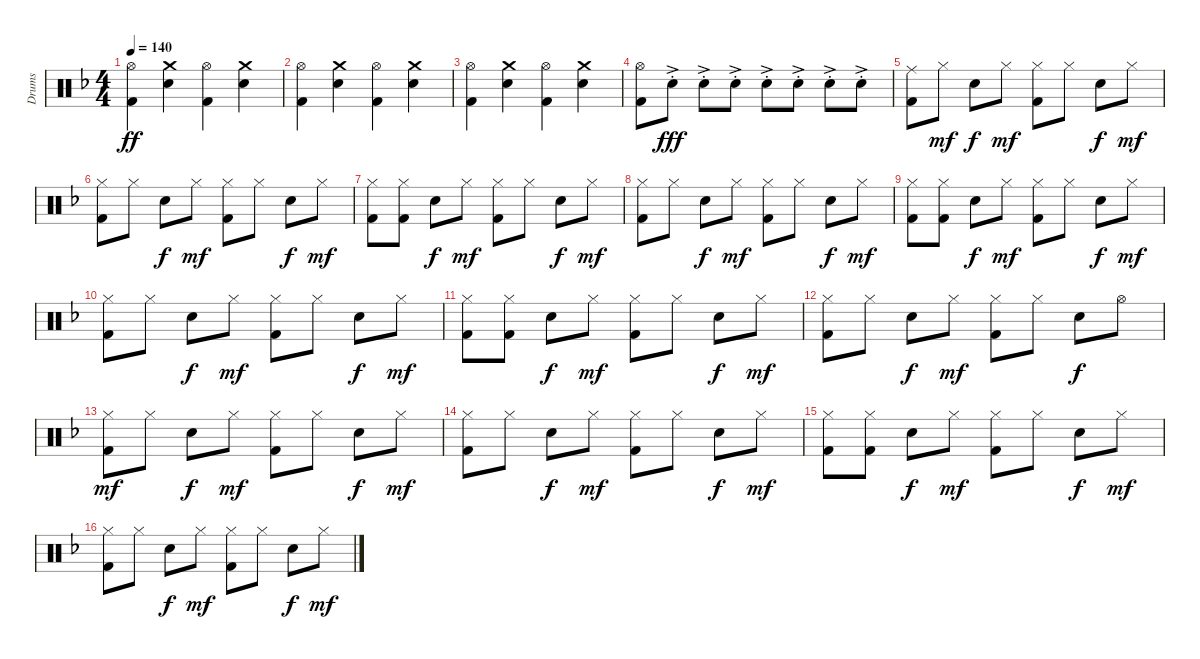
\track ("Drums" "Drums") {instrument percussion}
\staff {score}
\articulation defaults
\ts (4 4)
\tempo 140
\clef neutral
\ks dminor
("Hi-Hat (open)" "Kick (hit) 2").4{dy ff} ("Electric Snare (hit)" "Crash medium (hit)").4 ("Hi-Hat (open)" "Kick (hit) 2").4 ("Electric Snare (hit)" "Crash medium (hit)").4 |
("Hi-Hat (open)" "Kick (hit) 2").4 ("Electric Snare (hit)" "Crash medium (hit)").4 ("Hi-Hat (open)" "Kick (hit) 2").4 ("Electric Snare (hit)" "Crash medium (hit)").4 |
("Hi-Hat (open)" "Kick (hit) 2").4 ("Electric Snare (hit)" "Crash medium (hit)").4 ("Hi-Hat (open)" "Kick (hit) 2").4 ("Electric Snare (hit)" "Crash medium (hit)").4 |
("Hi-Hat (open)" "Kick (hit) 2").8 "Electric Snare (hit)"{ac st}.8{dy fff} "Electric Snare (hit)"{ac st}.8 "Electric Snare (hit)"{ac st}.8 "Electric Snare (hit)"{ac st}.8 "Electric Snare (hit)"{ac st}.8 "Electric Snare (hit)"{ac st}.8 "Electric Snare (hit)"{ac st}.8 |
("Kick (hit) 2" "Ride (middle)").8 "Hi-Hat (closed)".8{dy mf} "Electric Snare (hit)".8{dy f} "Hi-Hat (closed)".8{dy mf} ("Kick (hit) 2" "Hi-Hat (closed)").8 "Hi-Hat (closed)".8 "Electric Snare (hit)".8{dy f} "Hi-Hat (closed)".8{dy mf} |
("Kick (hit) 2" "Hi-Hat (closed)").8 "Hi-Hat (closed)".8 "Electric Snare (hit)".8{dy f} "Hi-Hat (closed)".8{dy mf} ("Kick (hit) 2" "Hi-Hat (closed)").8 "Hi-Hat (closed)".8 "Electric Snare (hit)".8{dy f} "Hi-Hat (closed)".8{dy mf} |
("Kick (hit) 2" "Hi-Hat (closed)").8 ("Kick (hit) 2" "Hi-Hat (closed)").8 "Electric Snare (hit)".8{dy f} "Hi-Hat (closed)".8{dy mf} ("Kick (hit) 2" "Hi-Hat (closed)").8 "Hi-Hat (closed)".8 "Electric Snare (hit)".8{dy f} "Hi-Hat (closed)".8{dy mf} |
("Kick (hit) 2" "Hi-Hat (closed)").8 "Hi-Hat (closed)".8 "Electric Snare (hit)".8{dy f} "Hi-Hat (closed)".8{dy mf} ("Kick (hit) 2" "Hi-Hat (closed)").8 "Hi-Hat (closed)".8 "Electric Snare (hit)".8{dy f} "Hi-Hat (closed)".8{dy mf} |
("Kick (hit) 2" "Hi-Hat (closed)").8 ("Kick (hit) 2" "Hi-Hat (closed)").8 "Electric Snare (hit)".8{dy f} "Hi-Hat (closed)".8{dy mf} ("Kick (hit) 2" "Hi-Hat (closed)").8 "Hi-Hat (closed)".8 "Electric Snare (hit)".8{dy f} "Hi-Hat (closed)".8{dy mf} |
("Kick (hit) 2" "Hi-Hat (closed)").8 "Hi-Hat (closed)".8 "Electric Snare (hit)".8{dy f} "Hi-Hat (closed)".8{dy mf} ("Kick (hit) 2" "Hi-Hat (closed)").8 "Hi-Hat (closed)".8 "Electric Snare (hit)".8{dy f} "Hi-Hat (closed)".8{dy mf} |
("Kick (hit) 2" "Hi-Hat (closed)").8 ("Kick (hit) 2" "Hi-Hat (closed)").8 "Electric Snare (hit)".8{dy f} "Hi-Hat (closed)".8{dy mf} ("Kick (hit) 2" "Hi-Hat (closed)").8 "Hi-Hat (closed)".8 "Electric Snare (hit)".8{dy f} "Hi-Hat (closed)".8{dy mf} |
("Kick (hit) 2" "Hi-Hat (closed)").8 "Hi-Hat (closed)".8 "Electric Snare (hit)".8{dy f} "Hi-Hat (closed)".8{dy mf} ("Kick (hit) 2" "Hi-Hat (closed)").8 "Hi-Hat (closed)".8 "Electric Snare (hit)".8{dy f} "Hi-Hat (open)".8 |
("Kick (hit) 2" "Hi-Hat (closed)").8{dy mf} "Hi-Hat (closed)".8 "Electric Snare (hit)".8{dy f} "Hi-Hat (closed)".8{dy mf} ("Kick (hit) 2" "Hi-Hat (closed)").8 "Hi-Hat (closed)".8 "Electric Snare (hit)".8{dy f} "Hi-Hat (closed)".8{dy mf} |
("Kick (hit) 2" "Hi-Hat (closed)").8 "Hi-Hat (closed)".8 "Electric Snare (hit)".8{dy f} "Hi-Hat (closed)".8{dy mf} ("Kick (hit) 2" "Hi-Hat (closed)").8 "Hi-Hat (closed)".8 "Electric Snare (hit)".8{dy f} "Hi-Hat (closed)".8{dy mf} |
("Kick (hit) 2" "Hi-Hat (closed)").8 ("Kick (hit) 2" "Hi-Hat (closed)").8 "Electric Snare (hit)".8{dy f} "Hi-Hat (closed)".8{dy mf} ("Kick (hit) 2" "Hi-Hat (closed)").8 "Hi-Hat (closed)".8 "Electric Snare (hit)".8{dy f} "Hi-Hat (closed)".8{dy mf} |
("Kick (hit) 2" "Hi-Hat (closed)").8 "Hi-Hat (closed)".8 "Electric Snare (hit)".8{dy f} "Hi-Hat (closed)".8{dy mf} ("Kick (hit) 2" "Hi-Hat (closed)").8 "Hi-Hat (closed)".8 "Electric Snare (hit)".8{dy f} "Hi-Hat (closed)".8{dy mf}
